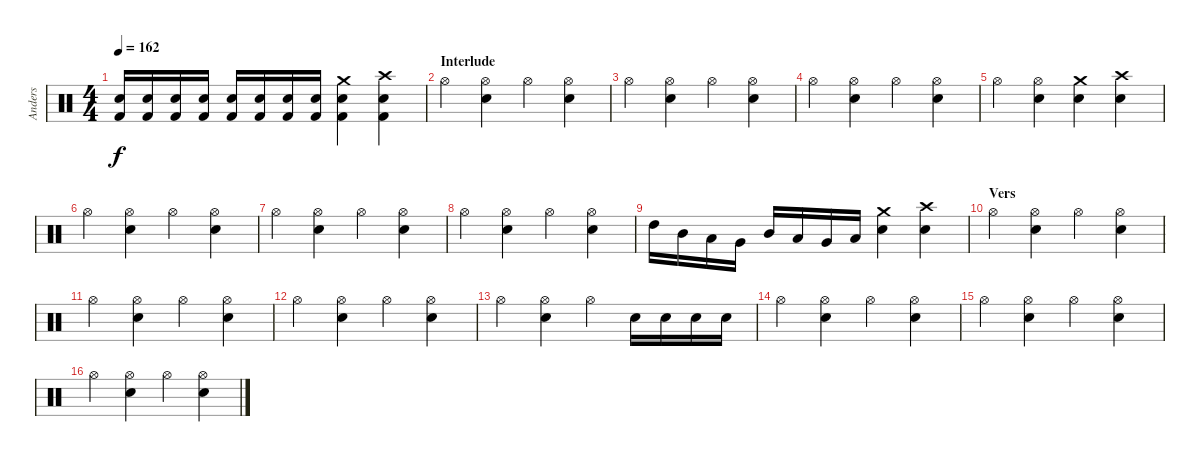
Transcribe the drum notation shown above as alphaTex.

\track ("Anders" "Anders") {instrument percussion}
\staff {score}
\articulation defaults
\ts (4 4)
\tempo 162
\clef neutral
\ks c
("Snare (hit) 2" "Kick (hit) 2").16{dy f} ("Snare (hit) 2" "Kick (hit) 2").16 ("Snare (hit) 2" "Kick (hit) 2").16 ("Snare (hit) 2" "Kick (hit) 2").16 ("Snare (hit) 2" "Kick (hit) 2").16 ("Snare (hit) 2" "Kick (hit) 2").16 ("Snare (hit) 2" "Kick (hit) 2").16 ("Snare (hit) 2" "Kick (hit) 2").16 ("Crash medium (hit)" "Snare (hit) 2" "Kick (hit) 2").4 ("Crash high (hit)" "Snare (hit) 2" "Kick (hit) 2").4 |
\section ("" "Interlude")
"Hi-Hat (open)".4 ("Hi-Hat (open)" "Snare (hit) 2").4 "Hi-Hat (open)".4 ("Hi-Hat (open)" "Snare (hit) 2").4 |
"Hi-Hat (open)".4 ("Hi-Hat (open)" "Snare (hit) 2").4 "Hi-Hat (open)".4 ("Hi-Hat (open)" "Snare (hit) 2").4 |
"Hi-Hat (open)".4 ("Hi-Hat (open)" "Snare (hit) 2").4 "Hi-Hat (open)".4 ("Hi-Hat (open)" "Snare (hit) 2").4 |
"Hi-Hat (open)".4 ("Hi-Hat (open)" "Snare (hit) 2").4 ("Crash medium (hit)" "Snare (hit) 2").4 ("Crash high (hit)" "Snare (hit) 2").4 |
"Hi-Hat (open)".4 ("Hi-Hat (open)" "Snare (hit) 2").4 "Hi-Hat (open)".4 ("Hi-Hat (open)" "Snare (hit) 2").4 |
"Hi-Hat (open)".4 ("Hi-Hat (open)" "Snare (hit) 2").4 "Hi-Hat (open)".4 ("Hi-Hat (open)" "Snare (hit) 2").4 |
"Hi-Hat (open)".4 ("Hi-Hat (open)" "Snare (hit) 2").4 "Hi-Hat (open)".4 ("Hi-Hat (open)" "Snare (hit) 2").4 |
"High Tom (hit)".16 "Mid Tom (hit)".16 "Low Tom (hit)".16 "Very Low Tom (hit)".16 "Mid Tom (hit)".16 "Low Tom (hit)".16 "Very Low Tom (hit)".16 "Low Floor Tom (hit)".16 ("Crash medium (hit)" "Snare (hit) 2").4 ("Crash high (hit)" "Snare (hit) 2").4 |
\section ("" "Vers")
"Hi-Hat (open)".4 ("Hi-Hat (open)" "Snare (hit) 2").4 "Hi-Hat (open)".4 ("Hi-Hat (open)" "Snare (hit) 2").4 |
"Hi-Hat (open)".4 ("Hi-Hat (open)" "Snare (hit) 2").4 "Hi-Hat (open)".4 ("Hi-Hat (open)" "Snare (hit) 2").4 |
"Hi-Hat (open)".4 ("Hi-Hat (open)" "Snare (hit) 2").4 "Hi-Hat (open)".4 ("Hi-Hat (open)" "Snare (hit) 2").4 |
"Hi-Hat (open)".4 ("Hi-Hat (open)" "Snare (hit) 2").4 "Hi-Hat (open)".4 "Snare (hit) 2".16 "Snare (hit) 2".16 "Snare (hit) 2".16 "Snare (hit) 2".16 |
"Hi-Hat (open)".4 ("Hi-Hat (open)" "Snare (hit) 2").4 "Hi-Hat (open)".4 ("Hi-Hat (open)" "Snare (hit) 2").4 |
"Hi-Hat (open)".4 ("Hi-Hat (open)" "Snare (hit) 2").4 "Hi-Hat (open)".4 ("Hi-Hat (open)" "Snare (hit) 2").4 |
"Hi-Hat (open)".4 ("Hi-Hat (open)" "Snare (hit) 2").4 "Hi-Hat (open)".4 ("Hi-Hat (open)" "Snare (hit) 2").4
